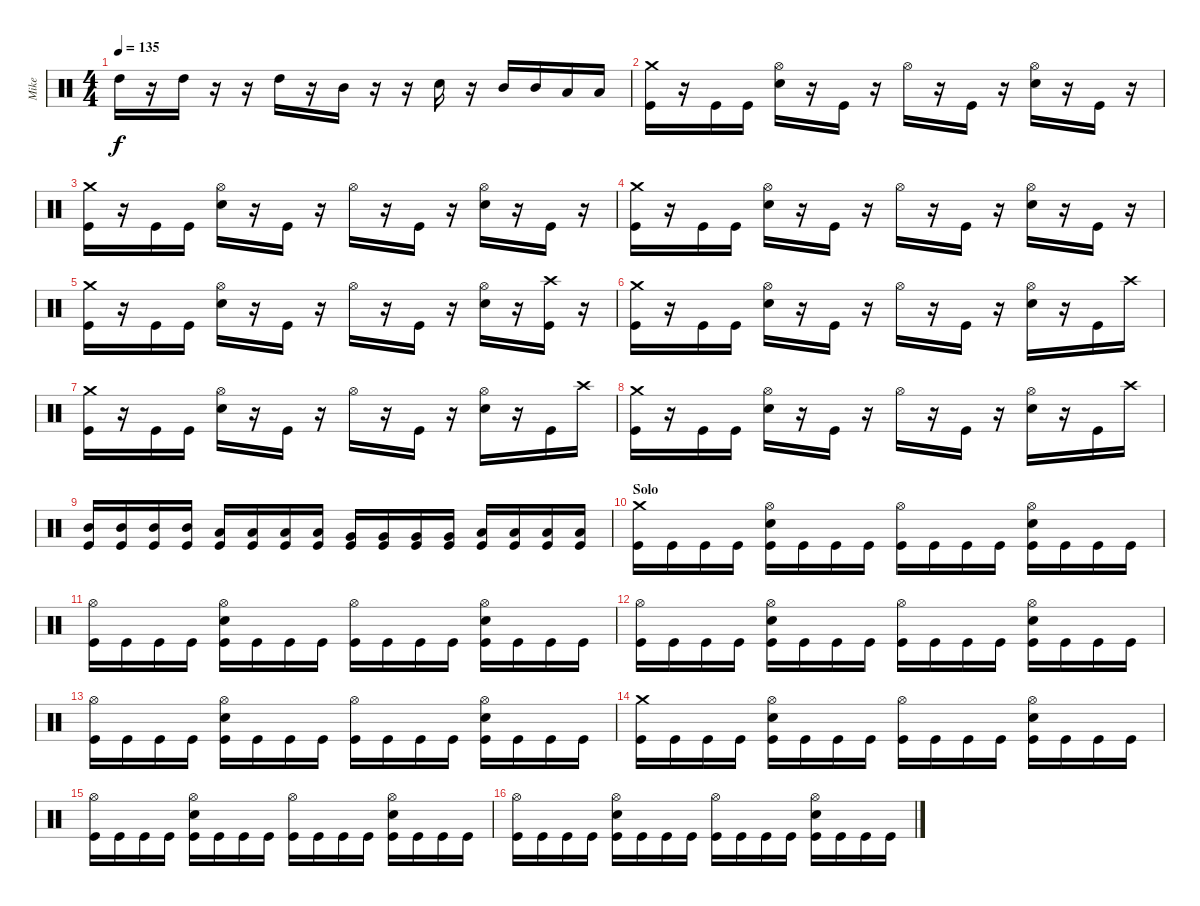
\track ("Mike" "Mike") {instrument percussion}
\staff {score}
\articulation defaults
\ts (4 4)
\tempo 135
\clef neutral
\ks c "High Tom (hit)".16{dy f}
r.16 "High Tom (hit)".16 r.16 r.16 "High Tom (hit)".16 r.16 "Mid Tom (hit)".16 r.16 r.16 "Electric Snare (hit)".16 r.16 "Mid Tom (hit)".16 "Mid Tom (hit)".16 "Low Tom (hit)".16 "Low Tom (hit)".16 |
("Crash medium (hit)" "Kick (hit)").16 r.16 "Kick (hit)".16 "Kick (hit)".16 ("Hi-Hat (open)" "Electric Snare (hit)").16 r.16 "Kick (hit)".16 r.16 "Hi-Hat (open)".16 r.16 "Kick (hit)".16 r.16 ("Hi-Hat (open)" "Electric Snare (hit)").16 r.16 "Kick (hit)".16 r.16 |
("Crash medium (hit)" "Kick (hit)").16 r.16 "Kick (hit)".16 "Kick (hit)".16 ("Hi-Hat (open)" "Electric Snare (hit)").16 r.16 "Kick (hit)".16 r.16 "Hi-Hat (open)".16 r.16 "Kick (hit)".16 r.16 ("Hi-Hat (open)" "Electric Snare (hit)").16 r.16 "Kick (hit)".16 r.16 |
("Crash medium (hit)" "Kick (hit)").16 r.16 "Kick (hit)".16 "Kick (hit)".16 ("Hi-Hat (open)" "Electric Snare (hit)").16 r.16 "Kick (hit)".16 r.16 "Hi-Hat (open)".16 r.16 "Kick (hit)".16 r.16 ("Hi-Hat (open)" "Electric Snare (hit)").16 r.16 "Kick (hit)".16 r.16 |
("Crash medium (hit)" "Kick (hit)").16 r.16 "Kick (hit)".16 "Kick (hit)".16 ("Hi-Hat (open)" "Electric Snare (hit)").16 r.16 "Kick (hit)".16 r.16 "Hi-Hat (open)".16 r.16 "Kick (hit)".16 r.16 ("Hi-Hat (open)" "Electric Snare (hit)").16 r.16 ("Crash high (hit)" "Kick (hit)").16 r.16 |
("Crash medium (hit)" "Kick (hit)").16 r.16 "Kick (hit)".16 "Kick (hit)".16 ("Hi-Hat (open)" "Electric Snare (hit)").16 r.16 "Kick (hit)".16 r.16 "Hi-Hat (open)".16 r.16 "Kick (hit)".16 r.16 ("Hi-Hat (open)" "Electric Snare (hit)").16 r.16 "Kick (hit)".16 "Crash high (hit)".16 |
("Crash medium (hit)" "Kick (hit)").16 r.16 "Kick (hit)".16 "Kick (hit)".16 ("Hi-Hat (open)" "Electric Snare (hit)").16 r.16 "Kick (hit)".16 r.16 "Hi-Hat (open)".16 r.16 "Kick (hit)".16 r.16 ("Hi-Hat (open)" "Electric Snare (hit)").16 r.16 "Kick (hit)".16 "Crash high (hit)".16 |
("Crash medium (hit)" "Kick (hit)").16 r.16 "Kick (hit)".16 "Kick (hit)".16 ("Hi-Hat (open)" "Electric Snare (hit)").16 r.16 "Kick (hit)".16 r.16 "Hi-Hat (open)".16 r.16 "Kick (hit)".16 r.16 ("Hi-Hat (open)" "Electric Snare (hit)").16 r.16 "Kick (hit)".16 "Crash high (hit)".16 |
("Mid Tom (hit)" "Kick (hit)").16 ("Mid Tom (hit)" "Kick (hit)").16 ("Mid Tom (hit)" "Kick (hit)").16 ("Mid Tom (hit)" "Kick (hit)").16 ("Low Tom (hit)" "Kick (hit)").16 ("Low Tom (hit)" "Kick (hit)").16 ("Low Tom (hit)" "Kick (hit)").16 ("Low Tom (hit)" "Kick (hit)").16 ("Very Low Tom (hit)" "Kick (hit)").16 ("Very Low Tom (hit)" "Kick (hit)").16 ("Very Low Tom (hit)" "Kick (hit)").16 ("Very Low Tom (hit)" "Kick (hit)").16 ("Low Floor Tom (hit)" "Kick (hit)").16 ("Low Floor Tom (hit)" "Kick (hit)").16 ("Low Floor Tom (hit)" "Kick (hit)").16 ("Low Floor Tom (hit)" "Kick (hit)").16 |
\section ("" "Solo")
("Crash medium (hit)" "Kick (hit)").16 "Kick (hit)".16 "Kick (hit)".16 "Kick (hit)".16 ("Hi-Hat (open)" "Electric Snare (hit)" "Kick (hit)").16 "Kick (hit)".16 "Kick (hit)".16 "Kick (hit)".16 ("Hi-Hat (open)" "Kick (hit)").16 "Kick (hit)".16 "Kick (hit)".16 "Kick (hit)".16 ("Hi-Hat (open)" "Electric Snare (hit)" "Kick (hit)").16 "Kick (hit)".16 "Kick (hit)".16 "Kick (hit)".16 |
("Hi-Hat (open)" "Kick (hit)").16 "Kick (hit)".16 "Kick (hit)".16 "Kick (hit)".16 ("Hi-Hat (open)" "Electric Snare (hit)" "Kick (hit)").16 "Kick (hit)".16 "Kick (hit)".16 "Kick (hit)".16 ("Hi-Hat (open)" "Kick (hit)").16 "Kick (hit)".16 "Kick (hit)".16 "Kick (hit)".16 ("Hi-Hat (open)" "Electric Snare (hit)" "Kick (hit)").16 "Kick (hit)".16 "Kick (hit)".16 "Kick (hit)".16 |
("Hi-Hat (open)" "Kick (hit)").16 "Kick (hit)".16 "Kick (hit)".16 "Kick (hit)".16 ("Hi-Hat (open)" "Electric Snare (hit)" "Kick (hit)").16 "Kick (hit)".16 "Kick (hit)".16 "Kick (hit)".16 ("Hi-Hat (open)" "Kick (hit)").16 "Kick (hit)".16 "Kick (hit)".16 "Kick (hit)".16 ("Hi-Hat (open)" "Electric Snare (hit)" "Kick (hit)").16 "Kick (hit)".16 "Kick (hit)".16 "Kick (hit)".16 |
("Hi-Hat (open)" "Kick (hit)").16 "Kick (hit)".16 "Kick (hit)".16 "Kick (hit)".16 ("Hi-Hat (open)" "Electric Snare (hit)" "Kick (hit)").16 "Kick (hit)".16 "Kick (hit)".16 "Kick (hit)".16 ("Hi-Hat (open)" "Kick (hit)").16 "Kick (hit)".16 "Kick (hit)".16 "Kick (hit)".16 ("Hi-Hat (open)" "Electric Snare (hit)" "Kick (hit)").16 "Kick (hit)".16 "Kick (hit)".16 "Kick (hit)".16 |
("Crash medium (hit)" "Kick (hit)").16 "Kick (hit)".16 "Kick (hit)".16 "Kick (hit)".16 ("Hi-Hat (open)" "Electric Snare (hit)" "Kick (hit)").16 "Kick (hit)".16 "Kick (hit)".16 "Kick (hit)".16 ("Hi-Hat (open)" "Kick (hit)").16 "Kick (hit)".16 "Kick (hit)".16 "Kick (hit)".16 ("Hi-Hat (open)" "Electric Snare (hit)" "Kick (hit)").16 "Kick (hit)".16 "Kick (hit)".16 "Kick (hit)".16 |
("Hi-Hat (open)" "Kick (hit)").16 "Kick (hit)".16 "Kick (hit)".16 "Kick (hit)".16 ("Hi-Hat (open)" "Electric Snare (hit)" "Kick (hit)").16 "Kick (hit)".16 "Kick (hit)".16 "Kick (hit)".16 ("Hi-Hat (open)" "Kick (hit)").16 "Kick (hit)".16 "Kick (hit)".16 "Kick (hit)".16 ("Hi-Hat (open)" "Electric Snare (hit)" "Kick (hit)").16 "Kick (hit)".16 "Kick (hit)".16 "Kick (hit)".16 |
("Hi-Hat (open)" "Kick (hit)").16 "Kick (hit)".16 "Kick (hit)".16 "Kick (hit)".16 ("Hi-Hat (open)" "Electric Snare (hit)" "Kick (hit)").16 "Kick (hit)".16 "Kick (hit)".16 "Kick (hit)".16 ("Hi-Hat (open)" "Kick (hit)").16 "Kick (hit)".16 "Kick (hit)".16 "Kick (hit)".16 ("Hi-Hat (open)" "Electric Snare (hit)" "Kick (hit)").16 "Kick (hit)".16 "Kick (hit)".16 "Kick (hit)".16
